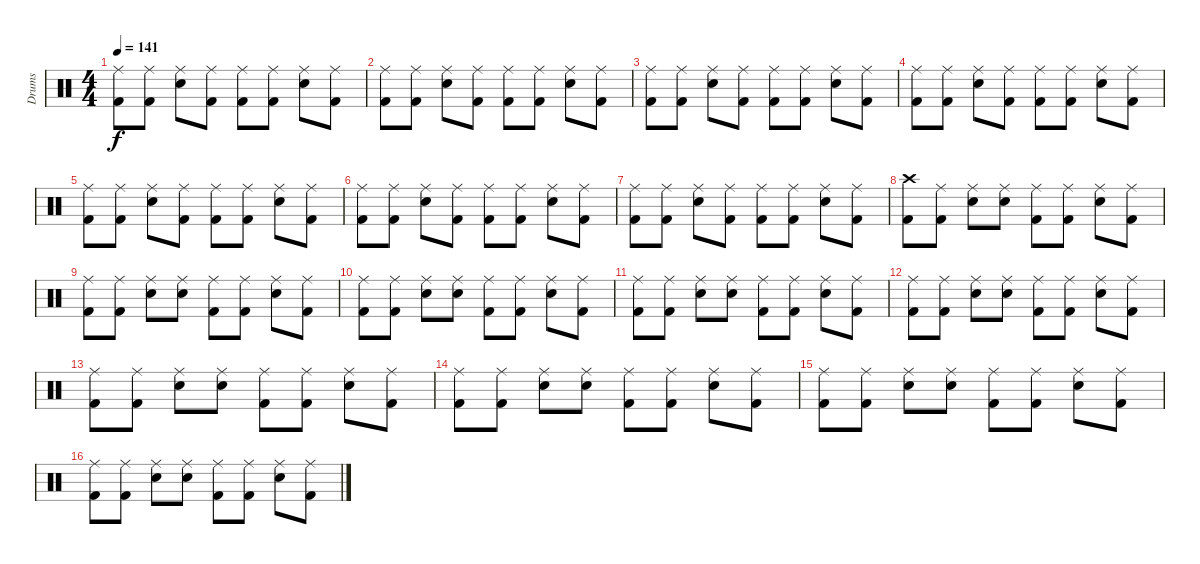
\track ("Drums" "Drums") {instrument percussion}
\staff {score}
\articulation defaults
\ts (4 4)
\tempo 141
\clef neutral
\ks c
("Ride (middle)" "Kick (hit) 2").8{dy f} ("Ride (middle)" "Kick (hit) 2").8 ("Ride (middle)" "Electric Snare (hit)").8 ("Ride (middle)" "Kick (hit) 2").8 ("Ride (middle)" "Kick (hit) 2").8 ("Ride (middle)" "Kick (hit) 2").8 ("Ride (middle)" "Electric Snare (hit)").8 ("Ride (middle)" "Kick (hit) 2").8 |
("Ride (middle)" "Kick (hit) 2").8 ("Ride (middle)" "Kick (hit) 2").8 ("Ride (middle)" "Electric Snare (hit)").8 ("Ride (middle)" "Kick (hit) 2").8 ("Ride (middle)" "Kick (hit) 2").8 ("Ride (middle)" "Kick (hit) 2").8 ("Ride (middle)" "Electric Snare (hit)").8 ("Ride (middle)" "Kick (hit) 2").8 |
("Ride (middle)" "Kick (hit) 2").8 ("Ride (middle)" "Kick (hit) 2").8 ("Ride (middle)" "Electric Snare (hit)").8 ("Ride (middle)" "Kick (hit) 2").8 ("Ride (middle)" "Kick (hit) 2").8 ("Ride (middle)" "Kick (hit) 2").8 ("Ride (middle)" "Electric Snare (hit)").8 ("Ride (middle)" "Kick (hit) 2").8 |
("Ride (middle)" "Kick (hit) 2").8 ("Ride (middle)" "Kick (hit) 2").8 ("Ride (middle)" "Electric Snare (hit)").8 ("Ride (middle)" "Kick (hit) 2").8 ("Ride (middle)" "Kick (hit) 2").8 ("Ride (middle)" "Kick (hit) 2").8 ("Ride (middle)" "Electric Snare (hit)").8 ("Ride (middle)" "Kick (hit) 2").8 |
("Ride (middle)" "Kick (hit) 2").8 ("Ride (middle)" "Kick (hit) 2").8 ("Ride (middle)" "Electric Snare (hit)").8 ("Ride (middle)" "Kick (hit) 2").8 ("Ride (middle)" "Kick (hit) 2").8 ("Ride (middle)" "Kick (hit) 2").8 ("Ride (middle)" "Electric Snare (hit)").8 ("Ride (middle)" "Kick (hit) 2").8 |
("Ride (middle)" "Kick (hit) 2").8 ("Ride (middle)" "Kick (hit) 2").8 ("Ride (middle)" "Electric Snare (hit)").8 ("Ride (middle)" "Kick (hit) 2").8 ("Ride (middle)" "Kick (hit) 2").8 ("Ride (middle)" "Kick (hit) 2").8 ("Ride (middle)" "Electric Snare (hit)").8 ("Ride (middle)" "Kick (hit) 2").8 |
("Ride (middle)" "Kick (hit) 2").8 ("Ride (middle)" "Kick (hit) 2").8 ("Ride (middle)" "Electric Snare (hit)").8 ("Ride (middle)" "Kick (hit) 2").8 ("Ride (middle)" "Kick (hit) 2").8 ("Ride (middle)" "Kick (hit) 2").8 ("Ride (middle)" "Electric Snare (hit)").8 ("Ride (middle)" "Kick (hit) 2").8 |
("Crash high (hit)" "Kick (hit) 2").8 ("Ride (middle)" "Kick (hit) 2").8 ("Ride (middle)" "Electric Snare (hit)").8 ("Ride (middle)" "Electric Snare (hit)").8 ("Ride (middle)" "Kick (hit) 2").8 ("Ride (middle)" "Kick (hit) 2").8 ("Ride (middle)" "Electric Snare (hit)").8 ("Ride (middle)" "Kick (hit) 2").8 |
("Ride (middle)" "Kick (hit) 2").8 ("Ride (middle)" "Kick (hit) 2").8 ("Ride (middle)" "Electric Snare (hit)").8 ("Ride (middle)" "Electric Snare (hit)").8 ("Ride (middle)" "Kick (hit) 2").8 ("Ride (middle)" "Kick (hit) 2").8 ("Ride (middle)" "Electric Snare (hit)").8 ("Ride (middle)" "Kick (hit) 2").8 |
("Ride (middle)" "Kick (hit) 2").8 ("Ride (middle)" "Kick (hit) 2").8 ("Ride (middle)" "Electric Snare (hit)").8 ("Ride (middle)" "Electric Snare (hit)").8 ("Ride (middle)" "Kick (hit) 2").8 ("Ride (middle)" "Kick (hit) 2").8 ("Ride (middle)" "Electric Snare (hit)").8 ("Ride (middle)" "Kick (hit) 2").8 |
("Ride (middle)" "Kick (hit) 2").8 ("Ride (middle)" "Kick (hit) 2").8 ("Ride (middle)" "Electric Snare (hit)").8 ("Ride (middle)" "Electric Snare (hit)").8 ("Ride (middle)" "Kick (hit) 2").8 ("Ride (middle)" "Kick (hit) 2").8 ("Ride (middle)" "Electric Snare (hit)").8 ("Ride (middle)" "Kick (hit) 2").8 |
("Ride (middle)" "Kick (hit) 2").8 ("Ride (middle)" "Kick (hit) 2").8 ("Ride (middle)" "Electric Snare (hit)").8 ("Ride (middle)" "Electric Snare (hit)").8 ("Ride (middle)" "Kick (hit) 2").8 ("Ride (middle)" "Kick (hit) 2").8 ("Ride (middle)" "Electric Snare (hit)").8 ("Ride (middle)" "Kick (hit) 2").8 |
("Ride (middle)" "Kick (hit) 2").8 ("Ride (middle)" "Kick (hit) 2").8 ("Ride (middle)" "Electric Snare (hit)").8 ("Ride (middle)" "Electric Snare (hit)").8 ("Ride (middle)" "Kick (hit) 2").8 ("Ride (middle)" "Kick (hit) 2").8 ("Ride (middle)" "Electric Snare (hit)").8 ("Ride (middle)" "Kick (hit) 2").8 |
("Ride (middle)" "Kick (hit) 2").8 ("Ride (middle)" "Kick (hit) 2").8 ("Ride (middle)" "Electric Snare (hit)").8 ("Ride (middle)" "Electric Snare (hit)").8 ("Ride (middle)" "Kick (hit) 2").8 ("Ride (middle)" "Kick (hit) 2").8 ("Ride (middle)" "Electric Snare (hit)").8 ("Ride (middle)" "Kick (hit) 2").8 |
("Ride (middle)" "Kick (hit) 2").8 ("Ride (middle)" "Kick (hit) 2").8 ("Ride (middle)" "Electric Snare (hit)").8 ("Ride (middle)" "Electric Snare (hit)").8 ("Ride (middle)" "Kick (hit) 2").8 ("Ride (middle)" "Kick (hit) 2").8 ("Ride (middle)" "Electric Snare (hit)").8 ("Ride (middle)" "Kick (hit) 2").8 |
("Ride (middle)" "Kick (hit) 2").8 ("Ride (middle)" "Kick (hit) 2").8 ("Ride (middle)" "Electric Snare (hit)").8 ("Ride (middle)" "Electric Snare (hit)").8 ("Ride (middle)" "Kick (hit) 2").8 ("Ride (middle)" "Kick (hit) 2").8 ("Ride (middle)" "Electric Snare (hit)").8 ("Ride (middle)" "Kick (hit) 2").8
